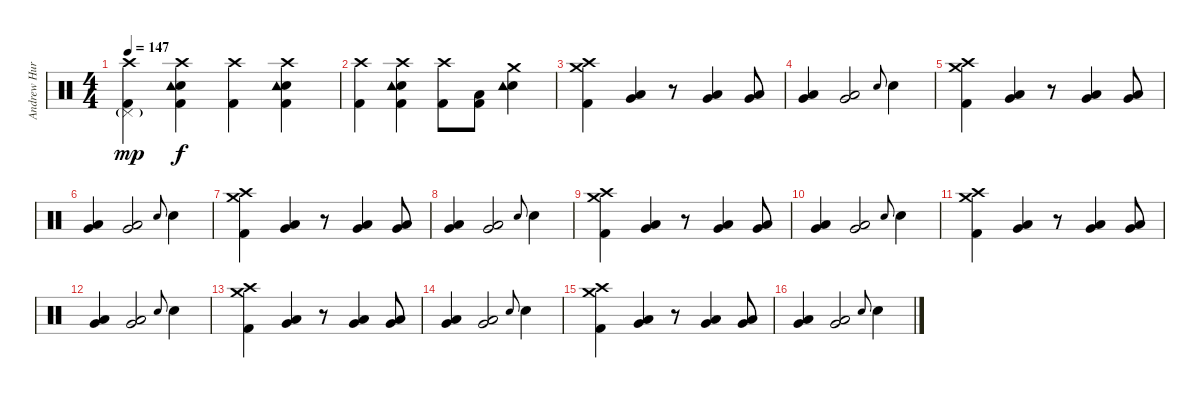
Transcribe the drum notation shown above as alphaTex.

\track ("Andrew Hurley (Drums)" "Andrew Hur") {instrument percussion}
\staff {score}
\articulation defaults
\ts (4 4)
\tempo 147
\clef neutral
\ks c
("Crash high (hit)" "Pedal Hi-Hat (hit)"{g} "Kick (hit) 2").4{dy mp} ("Crash high (hit)" "Snare (hit) 2" "Kick (hit) 2" "Tambourine (hit)").4{dy f} ("Crash high (hit)" "Kick (hit) 2").4 ("Crash high (hit)" "Snare (hit) 2" "Kick (hit) 2" "Tambourine (hit)").4 |
("Crash high (hit)" "Kick (hit) 2").4 ("Crash high (hit)" "Snare (hit) 2" "Kick (hit) 2" "Tambourine (hit)").4 ("Crash high (hit)" "Kick (hit) 2").8 ("Low Tom (hit)" "Kick (hit) 2").8 ("Crash medium (hit)" "Snare (hit) 2" "Tambourine (hit)").4 |
("Crash high (hit)" "Crash medium (hit)" "Kick (hit) 2").4 ("Very Low Tom (hit)" "Low Tom (hit)").4 r.8 ("Very Low Tom (hit)" "Low Tom (hit)").4 ("Very Low Tom (hit)" "Low Tom (hit)").8 |
("Very Low Tom (hit)" "Low Tom (hit)").4 ("Very Low Tom (hit)" "Low Tom (hit)").2 "Snare (hit) 2".8{gr onbeat} "Snare (hit) 2".4 |
("Crash high (hit)" "Crash medium (hit)" "Kick (hit) 2").4 ("Very Low Tom (hit)" "Low Tom (hit)").4 r.8 ("Very Low Tom (hit)" "Low Tom (hit)").4 ("Very Low Tom (hit)" "Low Tom (hit)").8 |
("Very Low Tom (hit)" "Low Tom (hit)").4 ("Very Low Tom (hit)" "Low Tom (hit)").2 "Snare (hit) 2".8{gr onbeat} "Snare (hit) 2".4 |
("Crash high (hit)" "Crash medium (hit)" "Kick (hit) 2").4 ("Very Low Tom (hit)" "Low Tom (hit)").4 r.8 ("Very Low Tom (hit)" "Low Tom (hit)").4 ("Very Low Tom (hit)" "Low Tom (hit)").8 |
("Very Low Tom (hit)" "Low Tom (hit)").4 ("Very Low Tom (hit)" "Low Tom (hit)").2 "Snare (hit) 2".8{gr onbeat} "Snare (hit) 2".4 |
("Crash high (hit)" "Crash medium (hit)" "Kick (hit) 2").4 ("Very Low Tom (hit)" "Low Tom (hit)").4 r.8 ("Very Low Tom (hit)" "Low Tom (hit)").4 ("Very Low Tom (hit)" "Low Tom (hit)").8 |
("Very Low Tom (hit)" "Low Tom (hit)").4 ("Very Low Tom (hit)" "Low Tom (hit)").2 "Snare (hit) 2".8{gr onbeat} "Snare (hit) 2".4 |
("Crash high (hit)" "Crash medium (hit)" "Kick (hit) 2").4 ("Very Low Tom (hit)" "Low Tom (hit)").4 r.8 ("Very Low Tom (hit)" "Low Tom (hit)").4 ("Very Low Tom (hit)" "Low Tom (hit)").8 |
("Very Low Tom (hit)" "Low Tom (hit)").4 ("Very Low Tom (hit)" "Low Tom (hit)").2 "Snare (hit) 2".8{gr onbeat} "Snare (hit) 2".4 |
("Crash high (hit)" "Crash medium (hit)" "Kick (hit) 2").4 ("Very Low Tom (hit)" "Low Tom (hit)").4 r.8 ("Very Low Tom (hit)" "Low Tom (hit)").4 ("Very Low Tom (hit)" "Low Tom (hit)").8 |
("Very Low Tom (hit)" "Low Tom (hit)").4 ("Very Low Tom (hit)" "Low Tom (hit)").2 "Snare (hit) 2".8{gr onbeat} "Snare (hit) 2".4 |
("Crash high (hit)" "Crash medium (hit)" "Kick (hit) 2").4 ("Very Low Tom (hit)" "Low Tom (hit)").4 r.8 ("Very Low Tom (hit)" "Low Tom (hit)").4 ("Very Low Tom (hit)" "Low Tom (hit)").8 |
("Very Low Tom (hit)" "Low Tom (hit)").4 ("Very Low Tom (hit)" "Low Tom (hit)").2 "Snare (hit) 2".8{gr onbeat} "Snare (hit) 2".4
